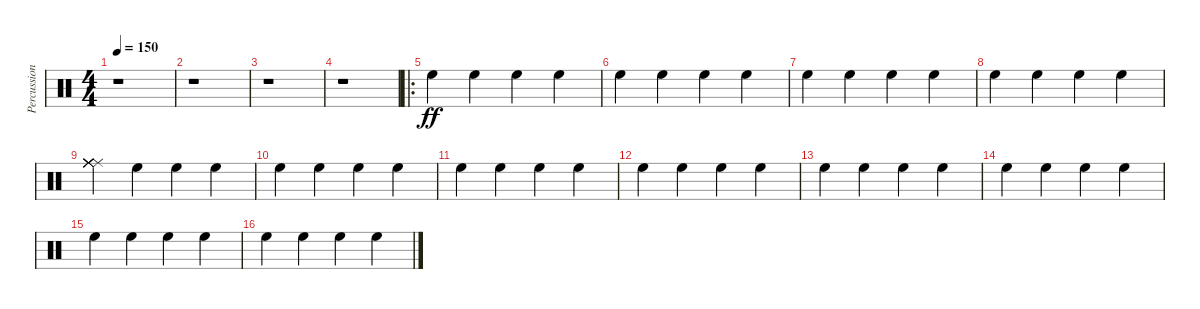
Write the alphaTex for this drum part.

\track ("Percussioni" "Percussion") {instrument percussion}
\staff {score}
\articulation defaults
\ts (4 4)
\tempo 150
\clef neutral
\ks c
r.1{dy ff} |
r.1 |
r.1 |
r.1 |
\ro "High Floor Tom (hit)".4 "High Floor Tom (hit)".4 "High Floor Tom (hit)".4 "High Floor Tom (hit)".4
|
"High Floor Tom (hit)".4 "High Floor Tom (hit)".4 "High Floor Tom (hit)".4 "High Floor Tom (hit)".4 |
"High Floor Tom (hit)".4 "High Floor Tom (hit)".4 "High Floor Tom (hit)".4 "High Floor Tom (hit)".4 |
"High Floor Tom (hit)".4 "High Floor Tom (hit)".4 "High Floor Tom (hit)".4 "High Floor Tom (hit)".4 |
("Ride (middle)" "Ride (middle)" "Ride (middle)" "Ride (middle)" "Ride (middle)" "Ride (middle)").4 "High Floor Tom (hit)".4 "High Floor Tom (hit)".4 "High Floor Tom (hit)".4 |
"High Floor Tom (hit)".4 "High Floor Tom (hit)".4 "High Floor Tom (hit)".4 "High Floor Tom (hit)".4 |
"High Floor Tom (hit)".4 "High Floor Tom (hit)".4 "High Floor Tom (hit)".4 "High Floor Tom (hit)".4 |
"High Floor Tom (hit)".4 "High Floor Tom (hit)".4 "High Floor Tom (hit)".4 "High Floor Tom (hit)".4 |
"High Floor Tom (hit)".4 "High Floor Tom (hit)".4 "High Floor Tom (hit)".4 "High Floor Tom (hit)".4 |
"High Floor Tom (hit)".4 "High Floor Tom (hit)".4 "High Floor Tom (hit)".4 "High Floor Tom (hit)".4 |
"High Floor Tom (hit)".4 "High Floor Tom (hit)".4 "High Floor Tom (hit)".4 "High Floor Tom (hit)".4 |
"High Floor Tom (hit)".4 "High Floor Tom (hit)".4 "High Floor Tom (hit)".4 "High Floor Tom (hit)".4
